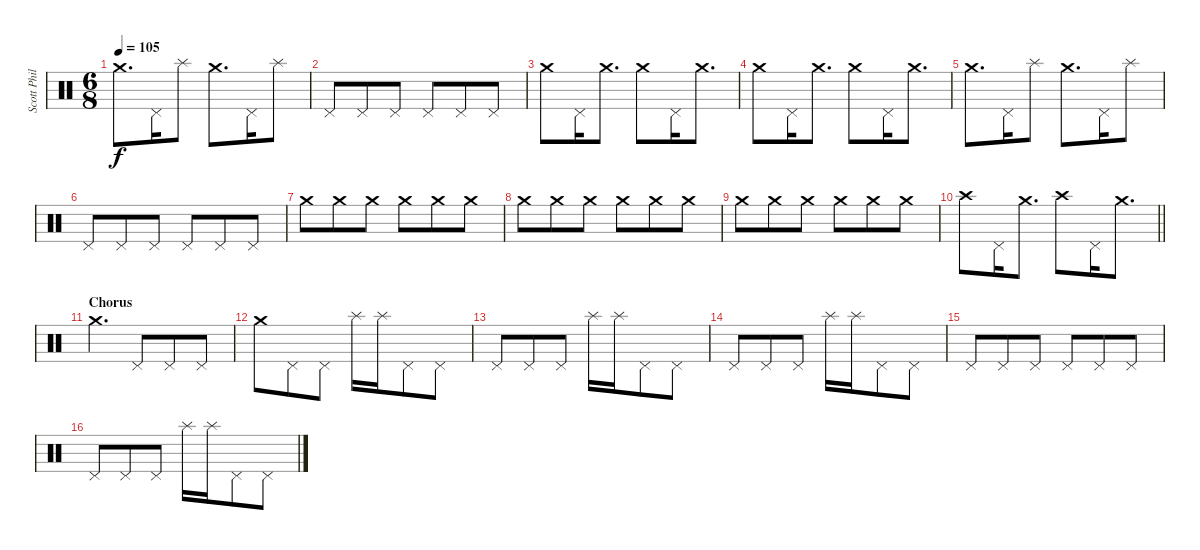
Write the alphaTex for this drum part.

\track ("Scott Phillips (Drums)" "Scott Phil") {instrument percussion}
\staff {score}
\articulation defaults
\ts (6 8)
\tempo 105
\clef neutral
\ks c "Crash medium (hit)".8{d dy f} "Pedal Hi-Hat (hit)".16 "Splash (hit)".8 "Crash medium (hit)".8{d} "Pedal Hi-Hat (hit)".16 "Splash (hit)".8
|
"Pedal Hi-Hat (hit)".8 "Pedal Hi-Hat (hit)".8 "Pedal Hi-Hat (hit)".8 "Pedal Hi-Hat (hit)".8 "Pedal Hi-Hat (hit)".8 "Pedal Hi-Hat (hit)".8 |
"Crash medium (hit)".8 "Pedal Hi-Hat (hit)".16 "Crash medium (hit)".8{d} "Crash medium (hit)".8 "Pedal Hi-Hat (hit)".16 "Crash medium (hit)".8{d} |
"Crash medium (hit)".8 "Pedal Hi-Hat (hit)".16 "Crash medium (hit)".8{d} "Crash medium (hit)".8 "Pedal Hi-Hat (hit)".16 "Crash medium (hit)".8{d} |
"Crash medium (hit)".8{d} "Pedal Hi-Hat (hit)".16 "Splash (hit)".8 "Crash medium (hit)".8{d} "Pedal Hi-Hat (hit)".16 "Splash (hit)".8 |
"Pedal Hi-Hat (hit)".8 "Pedal Hi-Hat (hit)".8 "Pedal Hi-Hat (hit)".8 "Pedal Hi-Hat (hit)".8 "Pedal Hi-Hat (hit)".8 "Pedal Hi-Hat (hit)".8 |
"Crash medium (hit)".8 "Crash medium (hit)".8 "Crash medium (hit)".8 "Crash medium (hit)".8 "Crash medium (hit)".8 "Crash medium (hit)".8 |
"Crash medium (hit)".8 "Crash medium (hit)".8 "Crash medium (hit)".8 "Crash medium (hit)".8 "Crash medium (hit)".8 "Crash medium (hit)".8 |
"Crash medium (hit)".8 "Crash medium (hit)".8 "Crash medium (hit)".8 "Crash medium (hit)".8 "Crash medium (hit)".8 "Crash medium (hit)".8 |
\barLineRight lightlight "Crash high (hit)".8 "Pedal Hi-Hat (hit)".16 "Crash medium (hit)".8{d} "Crash high (hit)".8 "Pedal Hi-Hat (hit)".16 "Crash medium (hit)".8{d}
|
\section ("" "Chorus")
"Crash medium (hit)".4{d} "Pedal Hi-Hat (hit)".8 "Pedal Hi-Hat (hit)".8 "Pedal Hi-Hat (hit)".8 |
"Crash medium (hit)".8 "Pedal Hi-Hat (hit)".8 "Pedal Hi-Hat (hit)".8 "Splash (hit)".16 "Splash (hit)".16 "Pedal Hi-Hat (hit)".8 "Pedal Hi-Hat (hit)".8 |
"Pedal Hi-Hat (hit)".8 "Pedal Hi-Hat (hit)".8 "Pedal Hi-Hat (hit)".8 "Splash (hit)".16 "Splash (hit)".16 "Pedal Hi-Hat (hit)".8 "Pedal Hi-Hat (hit)".8 |
"Pedal Hi-Hat (hit)".8 "Pedal Hi-Hat (hit)".8 "Pedal Hi-Hat (hit)".8 "Splash (hit)".16 "Splash (hit)".16 "Pedal Hi-Hat (hit)".8 "Pedal Hi-Hat (hit)".8 |
"Pedal Hi-Hat (hit)".8 "Pedal Hi-Hat (hit)".8 "Pedal Hi-Hat (hit)".8 "Pedal Hi-Hat (hit)".8 "Pedal Hi-Hat (hit)".8 "Pedal Hi-Hat (hit)".8 |
"Pedal Hi-Hat (hit)".8 "Pedal Hi-Hat (hit)".8 "Pedal Hi-Hat (hit)".8 "Splash (hit)".16 "Splash (hit)".16 "Pedal Hi-Hat (hit)".8 "Pedal Hi-Hat (hit)".8
